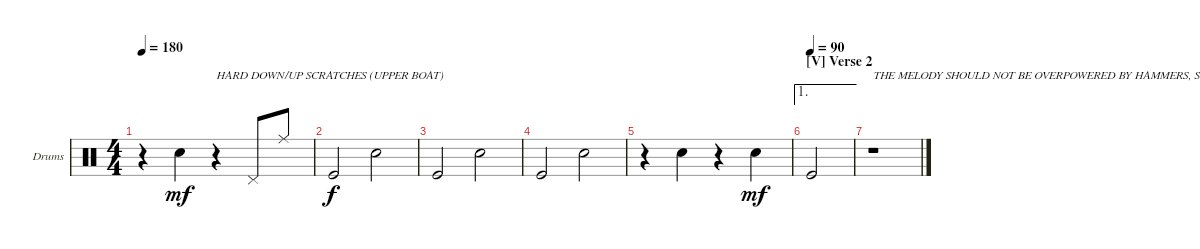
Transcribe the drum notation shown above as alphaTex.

\defaultSystemsLayout 4
\bracketExtendMode groupsimilarinstruments
\firstSystemTrackNameOrientation horizontal
\otherSystemsTrackNameOrientation horizontal
\track ("Drumkit" "Drums") {instrument percussion}
\staff {score}
\articulation defaults
\ts (4 4)
\tempo 180
\clef neutral
\scale
0.333333
\ks c
r.4{dy mf} "Snare (hit) 2".4 r.4{txt "HARD DOWN/UP SCRATCHES (UPPER BOAT)"} "Pedal Hi-Hat (hit)".8 "Ride (middle)".8 |
\scale
0.333333 "Kick (hit)".2{dy f} "Snare (hit) 2".2 |
\scale
0.333333 "Kick (hit)".2 "Snare (hit) 2".2 |
\scale
0.333333 "Kick (hit)".2 "Snare (hit) 2".2 |
\scale
0.333333 r.4 "Snare (hit) 2".4 r.4 "Snare (hit) 2".4{dy mf} |
\ae 1
\section ("V" "Verse 2")
\tempo 90
\scale
0.333333 "Kick (hit)".2 |
\scale
0.333333 r.1{txt "THE MELODY SHOULD NOT BE OVERPOWERED BY HAMMERS, SO PLAY ALL THE HAMMER-ONS REALLY SOFTLY"} |
\scale
0.333333 |
\scale
0.333333 |
\scale
0.333333 |
\scale
0.333333 |
\scale
0.333333 |
\scale
0.333333 |
\scale
0.333333 |
\scale
0.333333 |
\scale
0.333333
